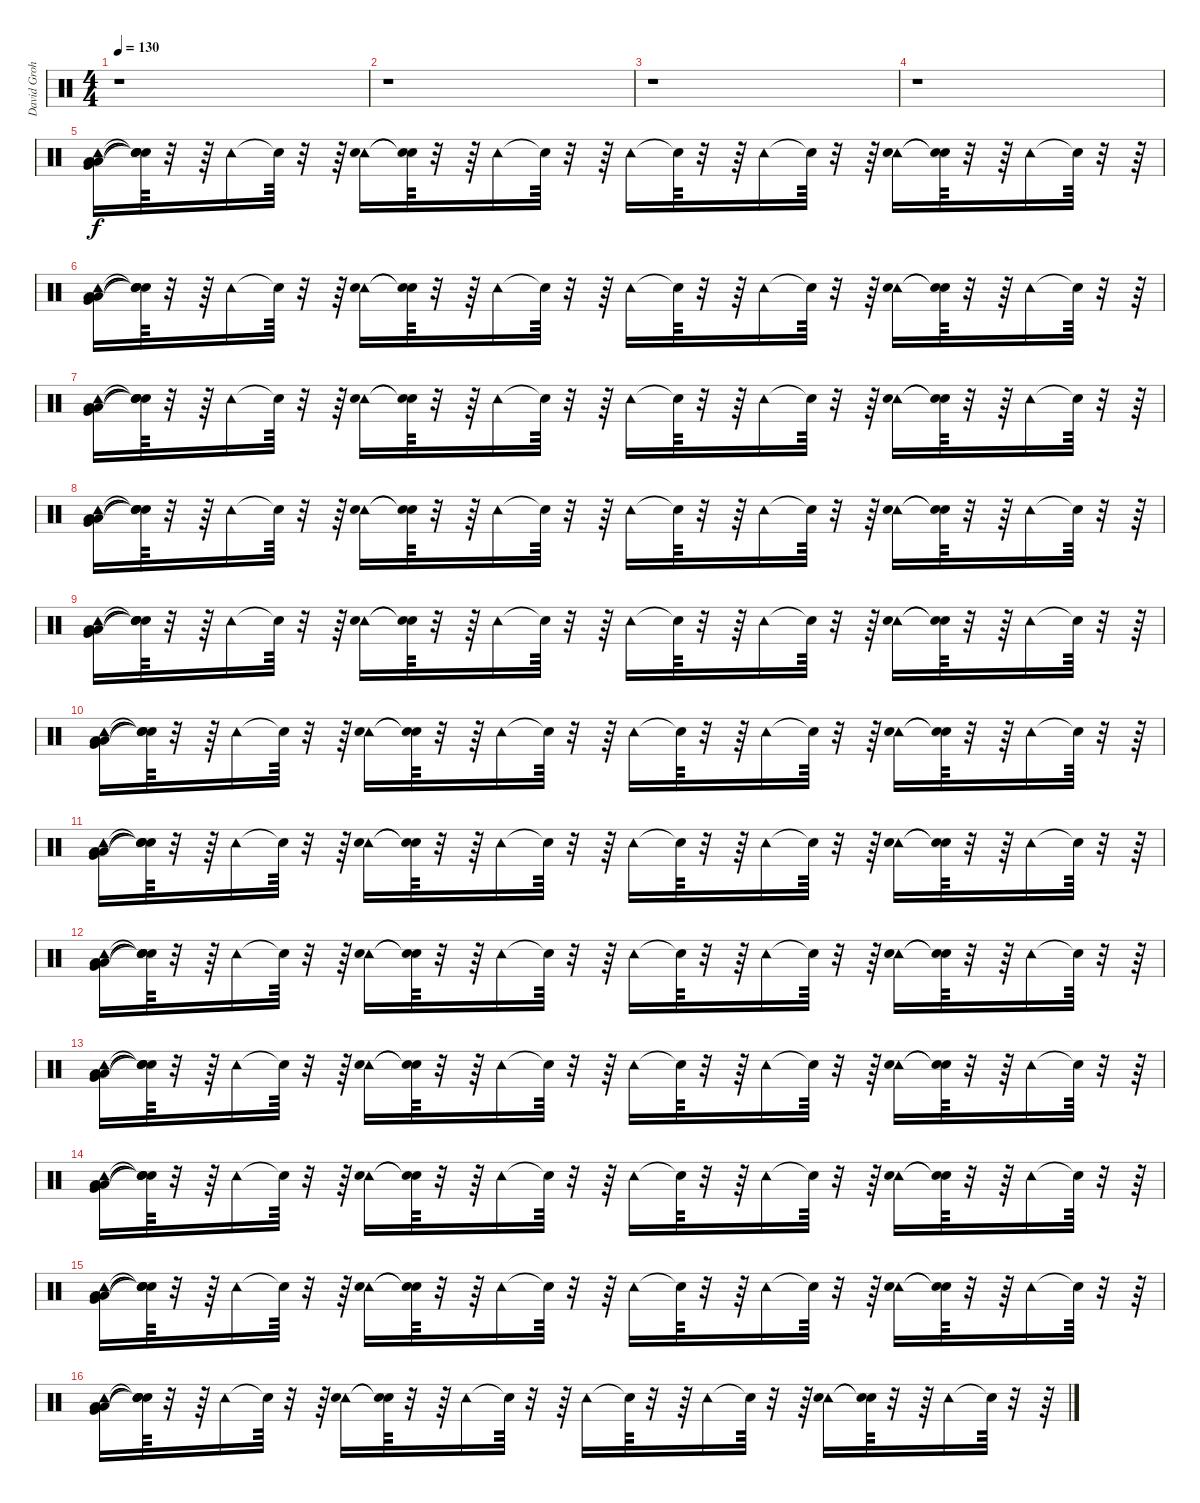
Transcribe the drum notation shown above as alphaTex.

\track ("David Grohl -Drums-" "David Groh") {instrument percussion}
\staff {score}
\articulation defaults
\ts (4 4)
\tempo 130
\clef neutral
\ks c
r.1{dy f} |
r.1 |
r.1 |
r.1 |
("Low Floor Tom (hit)" "Very Low Tom (hit)" "Low Tom (hit)" "Tambourine (hit)").16 ("Snare (hit)"{t} "Snare (hit)"{t} "Snare (hit)"{t} "Snare (hit)"{t}).64 r.32 r.64 "Tambourine (hit)".16 "Snare (hit)"{t}.64 r.32 r.64 ("Tambourine (hit)" "Electric Snare (hit)").16 ("Snare (hit)"{t} "Snare (hit)"{t}).64 r.32 r.64 "Tambourine (hit)".16 "Snare (hit)"{t}.64 r.32 r.64 "Tambourine (hit)".16 "Snare (hit)"{t}.64 r.32 r.64 "Tambourine (hit)".16 "Snare (hit)"{t}.64 r.32 r.64 ("Tambourine (hit)" "Electric Snare (hit)").16 ("Snare (hit)"{t} "Snare (hit)"{t}).64 r.32 r.64 "Tambourine (hit)".16 "Snare (hit)"{t}.64 r.32 r.64 |
("Tambourine (hit)" "Low Floor Tom (hit)" "Very Low Tom (hit)" "Low Tom (hit)").16 ("Snare (hit)"{t} "Snare (hit)"{t} "Snare (hit)"{t} "Snare (hit)"{t}).64 r.32 r.64 "Tambourine (hit)".16 "Snare (hit)"{t}.64 r.32 r.64 ("Tambourine (hit)" "Electric Snare (hit)").16 ("Snare (hit)"{t} "Snare (hit)"{t}).64 r.32 r.64 "Tambourine (hit)".16 "Snare (hit)"{t}.64 r.32 r.64 "Tambourine (hit)".16 "Snare (hit)"{t}.64 r.32 r.64 "Tambourine (hit)".16 "Snare (hit)"{t}.64 r.32 r.64 ("Tambourine (hit)" "Electric Snare (hit)").16 ("Snare (hit)"{t} "Snare (hit)"{t}).64 r.32 r.64 "Tambourine (hit)".16 "Snare (hit)"{t}.64 r.32 r.64 |
("Tambourine (hit)" "Low Floor Tom (hit)" "Very Low Tom (hit)" "Low Tom (hit)").16 ("Snare (hit)"{t} "Snare (hit)"{t} "Snare (hit)"{t} "Snare (hit)"{t}).64 r.32 r.64 "Tambourine (hit)".16 "Snare (hit)"{t}.64 r.32 r.64 ("Tambourine (hit)" "Electric Snare (hit)").16 ("Snare (hit)"{t} "Snare (hit)"{t}).64 r.32 r.64 "Tambourine (hit)".16 "Snare (hit)"{t}.64 r.32 r.64 "Tambourine (hit)".16 "Snare (hit)"{t}.64 r.32 r.64 "Tambourine (hit)".16 "Snare (hit)"{t}.64 r.32 r.64 ("Tambourine (hit)" "Electric Snare (hit)").16 ("Snare (hit)"{t} "Snare (hit)"{t}).64 r.32 r.64 "Tambourine (hit)".16 "Snare (hit)"{t}.64 r.32 r.64 |
("Tambourine (hit)" "Low Floor Tom (hit)" "Very Low Tom (hit)" "Low Tom (hit)").16 ("Snare (hit)"{t} "Snare (hit)"{t} "Snare (hit)"{t} "Snare (hit)"{t}).64 r.32 r.64 "Tambourine (hit)".16 "Snare (hit)"{t}.64 r.32 r.64 ("Tambourine (hit)" "Electric Snare (hit)").16 ("Snare (hit)"{t} "Snare (hit)"{t}).64 r.32 r.64 "Tambourine (hit)".16 "Snare (hit)"{t}.64 r.32 r.64 "Tambourine (hit)".16 "Snare (hit)"{t}.64 r.32 r.64 "Tambourine (hit)".16 "Snare (hit)"{t}.64 r.32 r.64 ("Tambourine (hit)" "Electric Snare (hit)").16 ("Snare (hit)"{t} "Snare (hit)"{t}).64 r.32 r.64 "Tambourine (hit)".16 "Snare (hit)"{t}.64 r.32 r.64 |
("Tambourine (hit)" "Low Floor Tom (hit)" "Very Low Tom (hit)" "Low Tom (hit)").16 ("Snare (hit)"{t} "Snare (hit)"{t} "Snare (hit)"{t} "Snare (hit)"{t}).64 r.32 r.64 "Tambourine (hit)".16 "Snare (hit)"{t}.64 r.32 r.64 ("Tambourine (hit)" "Electric Snare (hit)").16 ("Snare (hit)"{t} "Snare (hit)"{t}).64 r.32 r.64 "Tambourine (hit)".16 "Snare (hit)"{t}.64 r.32 r.64 "Tambourine (hit)".16 "Snare (hit)"{t}.64 r.32 r.64 "Tambourine (hit)".16 "Snare (hit)"{t}.64 r.32 r.64 ("Tambourine (hit)" "Electric Snare (hit)").16 ("Snare (hit)"{t} "Snare (hit)"{t}).64 r.32 r.64 "Tambourine (hit)".16 "Snare (hit)"{t}.64 r.32 r.64 |
("Tambourine (hit)" "Low Floor Tom (hit)" "Very Low Tom (hit)" "Low Tom (hit)").16 ("Snare (hit)"{t} "Snare (hit)"{t} "Snare (hit)"{t} "Snare (hit)"{t}).64 r.32 r.64 "Tambourine (hit)".16 "Snare (hit)"{t}.64 r.32 r.64 ("Tambourine (hit)" "Electric Snare (hit)").16 ("Snare (hit)"{t} "Snare (hit)"{t}).64 r.32 r.64 "Tambourine (hit)".16 "Snare (hit)"{t}.64 r.32 r.64 "Tambourine (hit)".16 "Snare (hit)"{t}.64 r.32 r.64 "Tambourine (hit)".16 "Snare (hit)"{t}.64 r.32 r.64 ("Tambourine (hit)" "Electric Snare (hit)").16 ("Snare (hit)"{t} "Snare (hit)"{t}).64 r.32 r.64 "Tambourine (hit)".16 "Snare (hit)"{t}.64 r.32 r.64 |
("Tambourine (hit)" "Low Floor Tom (hit)" "Very Low Tom (hit)" "Low Tom (hit)").16 ("Snare (hit)"{t} "Snare (hit)"{t} "Snare (hit)"{t} "Snare (hit)"{t}).64 r.32 r.64 "Tambourine (hit)".16 "Snare (hit)"{t}.64 r.32 r.64 ("Tambourine (hit)" "Electric Snare (hit)").16 ("Snare (hit)"{t} "Snare (hit)"{t}).64 r.32 r.64 "Tambourine (hit)".16 "Snare (hit)"{t}.64 r.32 r.64 "Tambourine (hit)".16 "Snare (hit)"{t}.64 r.32 r.64 "Tambourine (hit)".16 "Snare (hit)"{t}.64 r.32 r.64 ("Tambourine (hit)" "Electric Snare (hit)").16 ("Snare (hit)"{t} "Snare (hit)"{t}).64 r.32 r.64 "Tambourine (hit)".16 "Snare (hit)"{t}.64 r.32 r.64 |
("Tambourine (hit)" "Low Floor Tom (hit)" "Very Low Tom (hit)" "Low Tom (hit)").16 ("Snare (hit)"{t} "Snare (hit)"{t} "Snare (hit)"{t} "Snare (hit)"{t}).64 r.32 r.64 "Tambourine (hit)".16 "Snare (hit)"{t}.64 r.32 r.64 ("Tambourine (hit)" "Electric Snare (hit)").16 ("Snare (hit)"{t} "Snare (hit)"{t}).64 r.32 r.64 "Tambourine (hit)".16 "Snare (hit)"{t}.64 r.32 r.64 "Tambourine (hit)".16 "Snare (hit)"{t}.64 r.32 r.64 "Tambourine (hit)".16 "Snare (hit)"{t}.64 r.32 r.64 ("Tambourine (hit)" "Electric Snare (hit)").16 ("Snare (hit)"{t} "Snare (hit)"{t}).64 r.32 r.64 "Tambourine (hit)".16 "Snare (hit)"{t}.64 r.32 r.64 |
("Low Floor Tom (hit)" "Very Low Tom (hit)" "Low Tom (hit)" "Tambourine (hit)").16 ("Snare (hit)"{t} "Snare (hit)"{t} "Snare (hit)"{t} "Snare (hit)"{t}).64 r.32 r.64 "Tambourine (hit)".16 "Snare (hit)"{t}.64 r.32 r.64 ("Tambourine (hit)" "Electric Snare (hit)").16 ("Snare (hit)"{t} "Snare (hit)"{t}).64 r.32 r.64 "Tambourine (hit)".16 "Snare (hit)"{t}.64 r.32 r.64 "Tambourine (hit)".16 "Snare (hit)"{t}.64 r.32 r.64 "Tambourine (hit)".16 "Snare (hit)"{t}.64 r.32 r.64 ("Tambourine (hit)" "Electric Snare (hit)").16 ("Snare (hit)"{t} "Snare (hit)"{t}).64 r.32 r.64 "Tambourine (hit)".16 "Snare (hit)"{t}.64 r.32 r.64 |
("Tambourine (hit)" "Low Floor Tom (hit)" "Very Low Tom (hit)" "Low Tom (hit)").16 ("Snare (hit)"{t} "Snare (hit)"{t} "Snare (hit)"{t} "Snare (hit)"{t}).64 r.32 r.64 "Tambourine (hit)".16 "Snare (hit)"{t}.64 r.32 r.64 ("Tambourine (hit)" "Electric Snare (hit)").16 ("Snare (hit)"{t} "Snare (hit)"{t}).64 r.32 r.64 "Tambourine (hit)".16 "Snare (hit)"{t}.64 r.32 r.64 "Tambourine (hit)".16 "Snare (hit)"{t}.64 r.32 r.64 "Tambourine (hit)".16 "Snare (hit)"{t}.64 r.32 r.64 ("Tambourine (hit)" "Electric Snare (hit)").16 ("Snare (hit)"{t} "Snare (hit)"{t}).64 r.32 r.64 "Tambourine (hit)".16 "Snare (hit)"{t}.64 r.32 r.64 |
("Tambourine (hit)" "Low Floor Tom (hit)" "Very Low Tom (hit)" "Low Tom (hit)").16 ("Snare (hit)"{t} "Snare (hit)"{t} "Snare (hit)"{t} "Snare (hit)"{t}).64 r.32 r.64 "Tambourine (hit)".16 "Snare (hit)"{t}.64 r.32 r.64 ("Tambourine (hit)" "Electric Snare (hit)").16 ("Snare (hit)"{t} "Snare (hit)"{t}).64 r.32 r.64 "Tambourine (hit)".16 "Snare (hit)"{t}.64 r.32 r.64 "Tambourine (hit)".16 "Snare (hit)"{t}.64 r.32 r.64 "Tambourine (hit)".16 "Snare (hit)"{t}.64 r.32 r.64 ("Tambourine (hit)" "Electric Snare (hit)").16 ("Snare (hit)"{t} "Snare (hit)"{t}).64 r.32 r.64 "Tambourine (hit)".16 "Snare (hit)"{t}.64 r.32 r.64 |
("Tambourine (hit)" "Low Floor Tom (hit)" "Very Low Tom (hit)" "Low Tom (hit)").16 ("Snare (hit)"{t} "Snare (hit)"{t} "Snare (hit)"{t} "Snare (hit)"{t}).64 r.32 r.64 "Tambourine (hit)".16 "Snare (hit)"{t}.64 r.32 r.64 ("Tambourine (hit)" "Electric Snare (hit)").16 ("Snare (hit)"{t} "Snare (hit)"{t}).64 r.32 r.64 "Tambourine (hit)".16 "Snare (hit)"{t}.64 r.32 r.64 "Tambourine (hit)".16 "Snare (hit)"{t}.64 r.32 r.64 "Tambourine (hit)".16 "Snare (hit)"{t}.64 r.32 r.64 ("Tambourine (hit)" "Electric Snare (hit)").16 ("Snare (hit)"{t} "Snare (hit)"{t}).64 r.32 r.64 "Tambourine (hit)".16 "Snare (hit)"{t}.64 r.32 r.64
